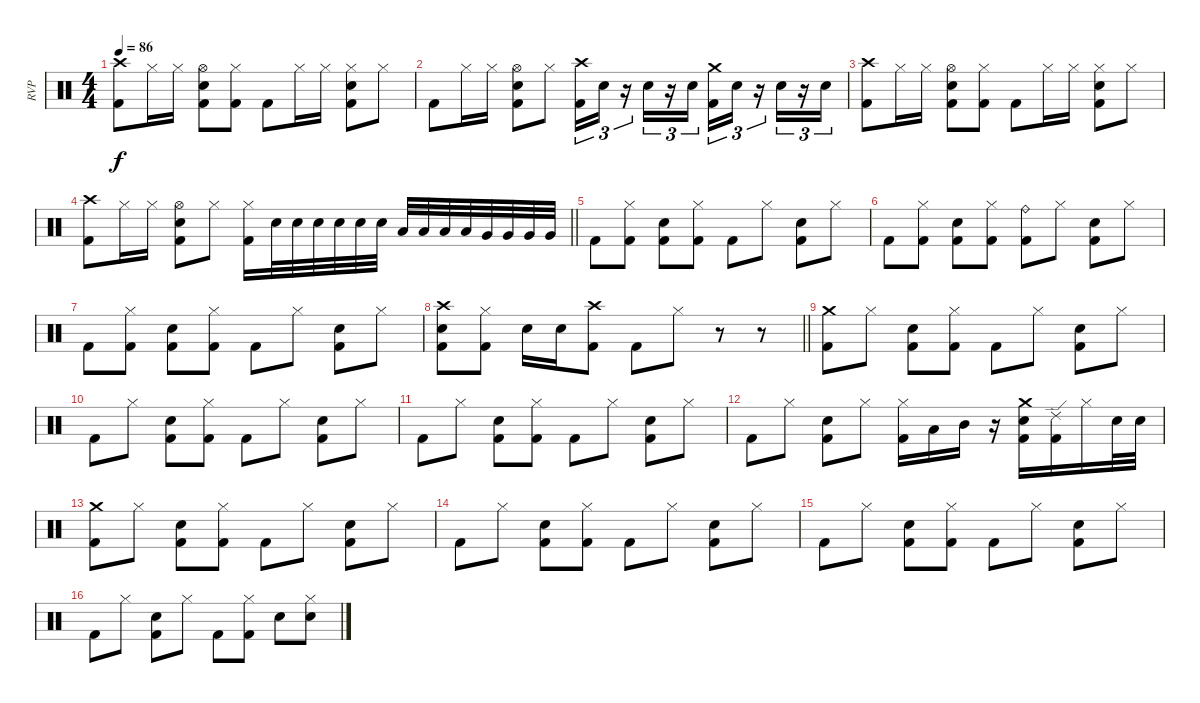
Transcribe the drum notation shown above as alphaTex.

\track ("RVP" "RVP") {instrument percussion}
\staff {score}
\articulation defaults
\ts (4 4)
\tempo 86
\clef neutral
\ks c
("Crash high (hit)" "Kick (hit) 2").8{dy f} "Hi-Hat (closed)".16 "Hi-Hat (closed)".16 ("Hi-Hat (open)" "Electric Snare (hit)" "Kick (hit) 2").8 ("Hi-Hat (closed)" "Kick (hit) 2").8 "Kick (hit) 2".8 "Hi-Hat (closed)".16 "Hi-Hat (closed)".16 ("Hi-Hat (closed)" "Electric Snare (hit)" "Kick (hit) 2").8 "Hi-Hat (closed)".8 |
"Kick (hit) 2".8 "Hi-Hat (closed)".16 "Hi-Hat (closed)".16 ("Hi-Hat (open)" "Electric Snare (hit)" "Kick (hit) 2").8 "Hi-Hat (closed)".8 ("Crash high (hit)" "Kick (hit) 2").16{tu (3 2)} "Electric Snare (hit)".16{tu (3 2)} r.16{tu (3 2)} "Electric Snare (hit)".16{tu (3 2)} r.16{tu (3 2)} "Electric Snare (hit)".16{tu (3 2)} ("Crash medium (hit)" "Kick (hit) 2").16{tu (3 2)} "Electric Snare (hit)".16{tu (3 2)} r.16{tu (3 2)} "Electric Snare (hit)".16{tu (3 2)} r.16{tu (3 2)} "Electric Snare (hit)".16{tu (3 2)} |
("Crash high (hit)" "Kick (hit) 2").8 "Hi-Hat (closed)".16 "Hi-Hat (closed)".16 ("Hi-Hat (open)" "Electric Snare (hit)" "Kick (hit) 2").8 ("Hi-Hat (closed)" "Kick (hit) 2").8 "Kick (hit) 2".8 "Hi-Hat (closed)".16 "Hi-Hat (closed)".16 ("Hi-Hat (closed)" "Electric Snare (hit)" "Kick (hit) 2").8 "Hi-Hat (closed)".8 |
\barLineRight lightlight
("Crash high (hit)" "Kick (hit) 2").8 "Hi-Hat (closed)".16 "Hi-Hat (closed)".16 ("Hi-Hat (open)" "Electric Snare (hit)" "Kick (hit) 2").8 "Hi-Hat (closed)".8 ("Hi-Hat (closed)" "Kick (hit) 2").16 "Electric Snare (hit)".32 "Electric Snare (hit)".32 "Electric Snare (hit)".32 "Electric Snare (hit)".32 "Electric Snare (hit)".32 "Electric Snare (hit)".32 "Low Tom (hit)".32 "Low Tom (hit)".32 "Low Tom (hit)".32 "Low Tom (hit)".32 "Very Low Tom (hit)".32 "Very Low Tom (hit)".32 "Very Low Tom (hit)".32 "Very Low Tom (hit)".32 |
"Kick (hit) 2".8 ("Hi-Hat (closed)" "Kick (hit) 2").8 ("Electric Snare (hit)" "Kick (hit) 2").8 ("Hi-Hat (closed)" "Kick (hit) 2").8 "Kick (hit) 2".8 "Hi-Hat (closed)".8 ("Electric Snare (hit)" "Kick (hit) 2").8 "Hi-Hat (closed)".8 |
"Kick (hit) 2".8 ("Hi-Hat (closed)" "Kick (hit) 2").8 ("Electric Snare (hit)" "Kick (hit) 2").8 ("Hi-Hat (closed)" "Kick (hit) 2").8 ("Ride (bell)" "Kick (hit) 2").8 "Hi-Hat (closed)".8 ("Electric Snare (hit)" "Kick (hit) 2").8 "Hi-Hat (closed)".8 |
"Kick (hit) 2".8 ("Hi-Hat (closed)" "Kick (hit) 2").8 ("Electric Snare (hit)" "Kick (hit) 2").8 ("Hi-Hat (closed)" "Kick (hit) 2").8 "Kick (hit) 2".8 "Hi-Hat (closed)".8 ("Electric Snare (hit)" "Kick (hit) 2").8 "Hi-Hat (closed)".8 |
\barLineRight lightlight
("Crash high (hit)" "Electric Snare (hit)" "Kick (hit) 2").8 ("Hi-Hat (closed)" "Kick (hit) 2").8 "Electric Snare (hit)".16 "Electric Snare (hit)".16 ("Crash high (hit)" "Kick (hit) 2").8 "Kick (hit) 2".8 "Hi-Hat (closed)".8 r.8 r.8 |
("Crash medium (hit)" "Kick (hit) 2").8 "Hi-Hat (closed)".8 ("Electric Snare (hit)" "Kick (hit) 2").8 ("Hi-Hat (closed)" "Kick (hit) 2").8 "Kick (hit) 2".8 "Hi-Hat (closed)".8 ("Electric Snare (hit)" "Kick (hit) 2").8 "Hi-Hat (closed)".8 |
"Kick (hit) 2".8 "Hi-Hat (closed)".8 ("Electric Snare (hit)" "Kick (hit) 2").8 ("Hi-Hat (closed)" "Kick (hit) 2").8 "Kick (hit) 2".8 "Hi-Hat (closed)".8 ("Electric Snare (hit)" "Kick (hit) 2").8 "Hi-Hat (closed)".8 |
"Kick (hit) 2".8 "Hi-Hat (closed)".8 ("Electric Snare (hit)" "Kick (hit) 2").8 ("Hi-Hat (closed)" "Kick (hit) 2").8 "Kick (hit) 2".8 "Hi-Hat (closed)".8 ("Electric Snare (hit)" "Kick (hit) 2").8 "Hi-Hat (closed)".8 |
"Kick (hit) 2".8 "Hi-Hat (closed)".8 ("Electric Snare (hit)" "Kick (hit) 2").8 "Hi-Hat (closed)".8 ("Hi-Hat (closed)" "Kick (hit) 2").16 "Low Tom (hit)".16 "Mid Tom (hit)".16 r.16 ("Crash medium (hit)" "Electric Snare (hit)" "Kick (hit) 2").16 ("Ride (edge) 2" "Kick (hit) 2").16 "Hi-Hat (closed)".16 "Electric Snare (hit)".32 "Electric Snare (hit)".32 |
("Crash medium (hit)" "Kick (hit) 2").8 "Hi-Hat (closed)".8 ("Electric Snare (hit)" "Kick (hit) 2").8 ("Hi-Hat (closed)" "Kick (hit) 2").8 "Kick (hit) 2".8 "Hi-Hat (closed)".8 ("Electric Snare (hit)" "Kick (hit) 2").8 "Hi-Hat (closed)".8 |
"Kick (hit) 2".8 "Hi-Hat (closed)".8 ("Electric Snare (hit)" "Kick (hit) 2").8 ("Hi-Hat (closed)" "Kick (hit) 2").8 "Kick (hit) 2".8 "Hi-Hat (closed)".8 ("Electric Snare (hit)" "Kick (hit) 2").8 "Hi-Hat (closed)".8 |
"Kick (hit) 2".8 "Hi-Hat (closed)".8 ("Electric Snare (hit)" "Kick (hit) 2").8 ("Hi-Hat (closed)" "Kick (hit) 2").8 "Kick (hit) 2".8 "Hi-Hat (closed)".8 ("Electric Snare (hit)" "Kick (hit) 2").8 "Hi-Hat (closed)".8 |
"Kick (hit) 2".8 "Hi-Hat (closed)".8 ("Electric Snare (hit)" "Kick (hit) 2").8 "Hi-Hat (closed)".8 "Kick (hit) 2".8 ("Hi-Hat (closed)" "Kick (hit) 2").8 "Electric Snare (hit)".8 ("Hi-Hat (closed)" "Electric Snare (hit)").8
